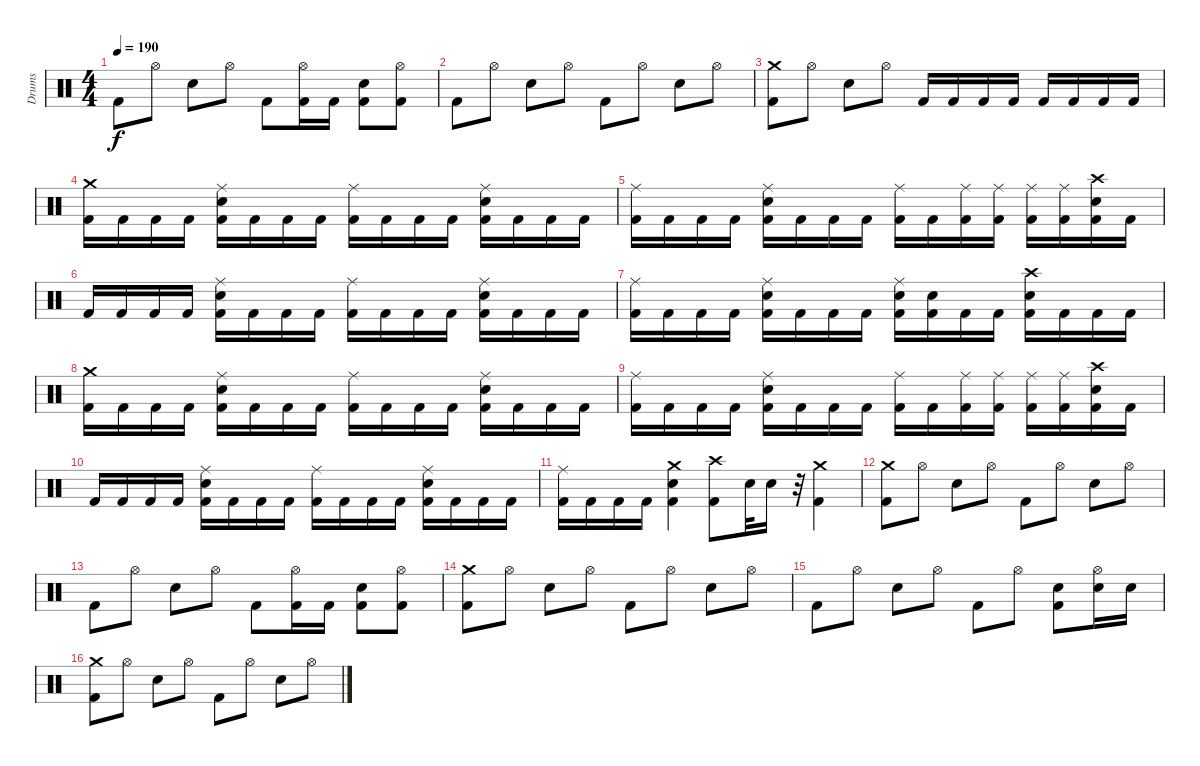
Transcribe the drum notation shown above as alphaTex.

\track ("Drums" "Drums") {instrument percussion}
\staff {score}
\articulation defaults
\ts (4 4)
\tempo 190
\clef neutral
\ks c "Kick (hit) 2".8{dy f} "Hi-Hat (open)".8 "Electric Snare (hit)".8 "Hi-Hat (open)".8 "Kick (hit) 2".8
("Hi-Hat (open)" "Kick (hit) 2").16 "Kick (hit) 2".16 ("Electric Snare (hit)" "Kick (hit) 2").8 ("Hi-Hat (open)" "Kick (hit) 2").8 |
"Kick (hit) 2".8 "Hi-Hat (open)".8 "Electric Snare (hit)".8 "Hi-Hat (open)".8 "Kick (hit) 2".8 "Hi-Hat (open)".8 "Electric Snare (hit)".8 "Hi-Hat (open)".8 |
("Crash medium (hit)" "Kick (hit) 2").8 "Hi-Hat (open)".8 "Electric Snare (hit)".8 "Hi-Hat (open)".8 "Kick (hit) 2".16 "Kick (hit) 2".16 "Kick (hit) 2".16 "Kick (hit) 2".16 "Kick (hit) 2".16 "Kick (hit) 2".16 "Kick (hit) 2".16 "Kick (hit) 2".16 |
("Crash medium (hit)" "Kick (hit) 2").16 "Kick (hit) 2".16 "Kick (hit) 2".16 "Kick (hit) 2".16 ("Ride (middle)" "Electric Snare (hit)" "Kick (hit) 2").16 "Kick (hit) 2".16 "Kick (hit) 2".16 "Kick (hit) 2".16 ("Ride (middle)" "Kick (hit) 2").16 "Kick (hit) 2".16 "Kick (hit) 2".16 "Kick (hit) 2".16 ("Ride (middle)" "Electric Snare (hit)" "Kick (hit) 2").16 "Kick (hit) 2".16 "Kick (hit) 2".16 "Kick (hit) 2".16 |
("Ride (middle)" "Kick (hit) 2").16 "Kick (hit) 2".16 "Kick (hit) 2".16 "Kick (hit) 2".16 ("Ride (middle)" "Electric Snare (hit)" "Kick (hit) 2").16 "Kick (hit) 2".16 "Kick (hit) 2".16 "Kick (hit) 2".16 ("Ride (middle)" "Kick (hit) 2").16 "Kick (hit) 2".16 ("Ride (middle)" "Kick (hit) 2").16 ("Ride (middle)" "Kick (hit) 2").16 ("Ride (middle)" "Kick (hit) 2").16 ("Ride (middle)" "Kick (hit) 2").16 ("Crash high (hit)" "Electric Snare (hit)" "Kick (hit) 2").16 "Kick (hit) 2".16 |
"Kick (hit) 2".16 "Kick (hit) 2".16 "Kick (hit) 2".16 "Kick (hit) 2".16 ("Ride (middle)" "Electric Snare (hit)" "Kick (hit) 2").16 "Kick (hit) 2".16 "Kick (hit) 2".16 "Kick (hit) 2".16 ("Ride (middle)" "Kick (hit) 2").16 "Kick (hit) 2".16 "Kick (hit) 2".16 "Kick (hit) 2".16 ("Ride (middle)" "Electric Snare (hit)" "Kick (hit) 2").16 "Kick (hit) 2".16 "Kick (hit) 2".16 "Kick (hit) 2".16 |
("Ride (middle)" "Kick (hit) 2").16 "Kick (hit) 2".16 "Kick (hit) 2".16 "Kick (hit) 2".16 ("Ride (middle)" "Electric Snare (hit)" "Kick (hit) 2").16 "Kick (hit) 2".16 "Kick (hit) 2".16 "Kick (hit) 2".16 ("Ride (middle)" "Electric Snare (hit)" "Kick (hit) 2").16 ("Electric Snare (hit)" "Kick (hit) 2").16 "Kick (hit) 2".16 "Kick (hit) 2".16 ("Crash high (hit)" "Electric Snare (hit)" "Kick (hit) 2").16 "Kick (hit) 2".16 "Kick (hit) 2".16 "Kick (hit) 2".16 |
("Crash medium (hit)" "Kick (hit) 2").16 "Kick (hit) 2".16 "Kick (hit) 2".16 "Kick (hit) 2".16 ("Ride (middle)" "Electric Snare (hit)" "Kick (hit) 2").16 "Kick (hit) 2".16 "Kick (hit) 2".16 "Kick (hit) 2".16 ("Ride (middle)" "Kick (hit) 2").16 "Kick (hit) 2".16 "Kick (hit) 2".16 "Kick (hit) 2".16 ("Ride (middle)" "Electric Snare (hit)" "Kick (hit) 2").16 "Kick (hit) 2".16 "Kick (hit) 2".16 "Kick (hit) 2".16 |
("Ride (middle)" "Kick (hit) 2").16 "Kick (hit) 2".16 "Kick (hit) 2".16 "Kick (hit) 2".16 ("Ride (middle)" "Electric Snare (hit)" "Kick (hit) 2").16 "Kick (hit) 2".16 "Kick (hit) 2".16 "Kick (hit) 2".16 ("Ride (middle)" "Kick (hit) 2").16 "Kick (hit) 2".16 ("Ride (middle)" "Kick (hit) 2").16 ("Ride (middle)" "Kick (hit) 2").16 ("Ride (middle)" "Kick (hit) 2").16 ("Ride (middle)" "Kick (hit) 2").16 ("Crash high (hit)" "Electric Snare (hit)" "Kick (hit) 2").16 "Kick (hit) 2".16 |
"Kick (hit) 2".16 "Kick (hit) 2".16 "Kick (hit) 2".16 "Kick (hit) 2".16 ("Ride (middle)" "Electric Snare (hit)" "Kick (hit) 2").16 "Kick (hit) 2".16 "Kick (hit) 2".16 "Kick (hit) 2".16 ("Ride (middle)" "Kick (hit) 2").16 "Kick (hit) 2".16 "Kick (hit) 2".16 "Kick (hit) 2".16 ("Ride (middle)" "Electric Snare (hit)" "Kick (hit) 2").16 "Kick (hit) 2".16 "Kick (hit) 2".16 "Kick (hit) 2".16 |
("Ride (middle)" "Kick (hit) 2").16 "Kick (hit) 2".16 "Kick (hit) 2".16 "Kick (hit) 2".16 ("Crash medium (hit)" "Electric Snare (hit)" "Kick (hit) 2").4 ("Crash high (hit)" "Kick (hit) 2").8 "Electric Snare (hit)".32 "Electric Snare (hit)".16 r.32 ("Crash medium (hit)" "Kick (hit) 2").4 |
("Crash medium (hit)" "Kick (hit) 2").8 "Hi-Hat (open)".8 "Electric Snare (hit)".8 "Hi-Hat (open)".8 "Kick (hit) 2".8 "Hi-Hat (open)".8 "Electric Snare (hit)".8 "Hi-Hat (open)".8 |
"Kick (hit) 2".8 "Hi-Hat (open)".8 "Electric Snare (hit)".8 "Hi-Hat (open)".8 "Kick (hit) 2".8 ("Hi-Hat (open)" "Kick (hit) 2").16 "Kick (hit) 2".16 ("Electric Snare (hit)" "Kick (hit) 2").8 ("Hi-Hat (open)" "Kick (hit) 2").8 |
("Crash medium (hit)" "Kick (hit) 2").8 "Hi-Hat (open)".8 "Electric Snare (hit)".8 "Hi-Hat (open)".8 "Kick (hit) 2".8 "Hi-Hat (open)".8 "Electric Snare (hit)".8 "Hi-Hat (open)".8 |
"Kick (hit) 2".8 "Hi-Hat (open)".8 "Electric Snare (hit)".8 "Hi-Hat (open)".8 "Kick (hit) 2".8 "Hi-Hat (open)".8 ("Electric Snare (hit)" "Kick (hit) 2").8 ("Hi-Hat (open)" "Electric Snare (hit)").16 "Electric Snare (hit)".16 |
("Crash medium (hit)" "Kick (hit) 2").8 "Hi-Hat (open)".8 "Electric Snare (hit)".8 "Hi-Hat (open)".8 "Kick (hit) 2".8 "Hi-Hat (open)".8 "Electric Snare (hit)".8 "Hi-Hat (open)".8
